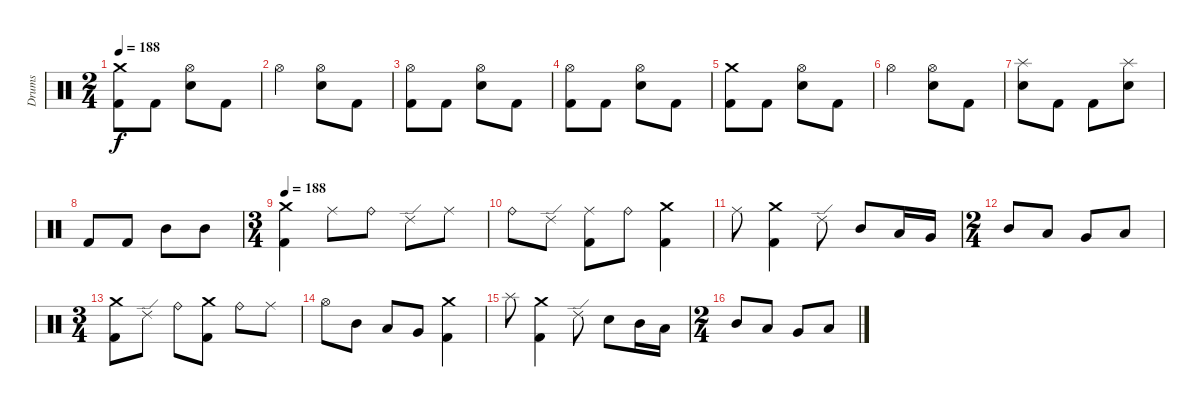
\track ("Drums" "Drums") {instrument percussion}
\staff {score}
\articulation defaults
\ts (2 4)
\tempo 188
\clef neutral
\ks c
("Crash medium (hit)" "Kick (hit) 2").8{dy f} "Kick (hit) 2".8 ("Electric Snare (hit)" "Hi-Hat (open)").8 "Kick (hit) 2".8 |
"Hi-Hat (open)".4 ("Electric Snare (hit)" "Hi-Hat (open)").8 "Kick (hit) 2".8 |
("Hi-Hat (open)" "Kick (hit) 2").8 "Kick (hit) 2".8 ("Electric Snare (hit)" "Hi-Hat (open)").8 "Kick (hit) 2".8 |
("Hi-Hat (open)" "Kick (hit) 2").8 "Kick (hit) 2".8 ("Electric Snare (hit)" "Hi-Hat (open)").8 "Kick (hit) 2".8 |
("Crash medium (hit)" "Kick (hit) 2").8 "Kick (hit) 2".8 ("Electric Snare (hit)" "Hi-Hat (open)").8 "Kick (hit) 2".8 |
"Hi-Hat (open)".4 ("Electric Snare (hit)" "Hi-Hat (open)").8 "Kick (hit) 2".8 |
("Electric Snare (hit)" "Splash (hit)").8 "Kick (hit) 2".8 "Kick (hit) 2".8 ("Electric Snare (hit)" "Splash (hit)").8 |
"Kick (hit) 2".8 "Kick (hit) 2".8 "Mid Tom (hit)".8 "Mid Tom (hit)".8 |
\ts (3 4)
\tempo 188
("Crash medium (hit)" "Kick (hit) 2").4 "Ride (middle)".8 "Ride (bell)".8 "Ride (edge) 2".8 "Ride (middle)".8 |
"Ride (bell)".8 "Ride (edge) 2".8 ("Ride (middle)" "Kick (hit) 2").8 "Ride (bell)".8 ("Crash medium (hit)" "Kick (hit) 2").4 |
"Ride (middle)".8 ("Crash medium (hit)" "Kick (hit) 2").4 "Ride (edge) 2".8 "Mid Tom (hit)".8 "Low Tom (hit)".16 "Very Low Tom (hit)".16 |
\ts (2 4)
"Mid Tom (hit)".8 "Low Tom (hit)".8 "Very Low Tom (hit)".8 "Low Floor Tom (hit)".8 |
\ts (3 4)
("Crash medium (hit)" "Kick (hit) 2").8 "Ride (edge) 2".8 "Ride (bell)".8 ("Crash medium (hit)" "Kick (hit) 2").8 "Ride (bell)".8 "Ride (middle)".8 |
"Hi-Hat (open)".8 "Mid Tom (hit)".8 "Low Tom (hit)".8 "Very Low Tom (hit)".8 ("Crash medium (hit)" "Kick (hit) 2").4 |
"Splash (hit)".8 ("Crash medium (hit)" "Kick (hit) 2").4 "Ride (edge) 2".8 "Electric Snare (hit)".8 "Mid Tom (hit)".16 "Low Tom (hit)".16 |
\ts (2 4)
"Mid Tom (hit)".8 "Low Tom (hit)".8 "Very Low Tom (hit)".8 "Low Floor Tom (hit)".8
